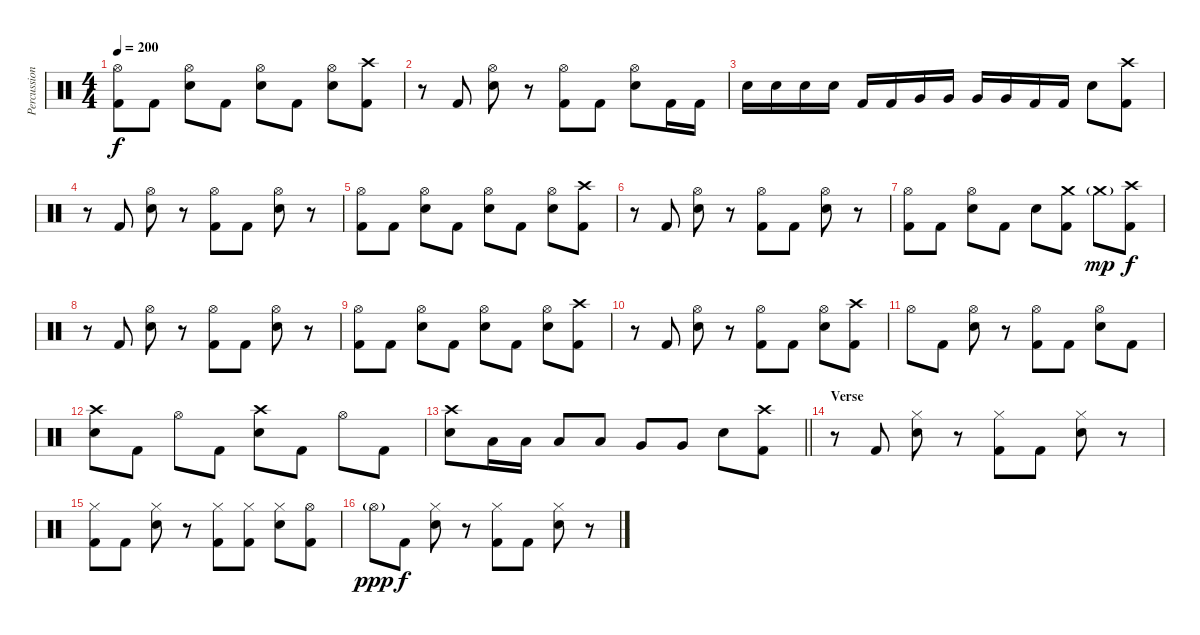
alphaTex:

\track ("Percussion" "Percussion") {instrument percussion}
\staff {score}
\articulation defaults
\ts (4 4)
\tempo 200
\clef neutral
\ks c
("Hi-Hat (open)" "Kick (hit) 2").8{dy f} "Kick (hit) 2".8 ("Hi-Hat (open)" "Electric Snare (hit)").8 "Kick (hit) 2".8 ("Hi-Hat (open)" "Electric Snare (hit)").8 "Kick (hit) 2".8 ("Hi-Hat (open)" "Electric Snare (hit)").8 ("Crash high (hit)" "Kick (hit) 2").8 |
r.8 "Kick (hit) 2".8 ("Hi-Hat (open)" "Electric Snare (hit)").8 r.8 ("Hi-Hat (open)" "Kick (hit) 2").8 "Kick (hit) 2".8 ("Hi-Hat (open)" "Electric Snare (hit)").8 "Kick (hit) 2".16 "Kick (hit) 2".16 |
"Electric Snare (hit)".16 "Electric Snare (hit)".16 "Electric Snare (hit)".16 "Electric Snare (hit)".16 "Kick (hit) 2".16 "Kick (hit) 2".16 "Very Low Tom (hit)".16 "Very Low Tom (hit)".16 "Very Low Tom (hit)".16 "Very Low Tom (hit)".16 "Kick (hit) 2".16 "Kick (hit) 2".16 "Electric Snare (hit)".8 ("Crash high (hit)" "Kick (hit) 2").8 |
r.8 "Kick (hit) 2".8 ("Hi-Hat (open)" "Electric Snare (hit)").8 r.8 ("Hi-Hat (open)" "Kick (hit) 2").8 "Kick (hit) 2".8 ("Hi-Hat (open)" "Electric Snare (hit)").8 r.8 |
("Hi-Hat (open)" "Kick (hit) 2").8 "Kick (hit) 2".8 ("Hi-Hat (open)" "Electric Snare (hit)").8 "Kick (hit) 2".8 ("Hi-Hat (open)" "Electric Snare (hit)").8 "Kick (hit) 2".8 ("Hi-Hat (open)" "Electric Snare (hit)").8 ("Crash high (hit)" "Kick (hit) 2").8 |
r.8 "Kick (hit) 2".8 ("Hi-Hat (open)" "Electric Snare (hit)").8 r.8 ("Hi-Hat (open)" "Kick (hit) 2").8 "Kick (hit) 2".8 ("Hi-Hat (open)" "Electric Snare (hit)").8 r.8 |
("Hi-Hat (open)" "Kick (hit) 2").8 "Kick (hit) 2".8 ("Hi-Hat (open)" "Electric Snare (hit)").8 "Kick (hit) 2".8 "Electric Snare (hit)".8 ("Crash medium (hit)" "Kick (hit) 2").8 "Crash medium (hit)"{g}.8{dy mp volume 0} ("Crash high (hit)" "Kick (hit) 2").8{dy f volume 13} |
r.8 "Kick (hit) 2".8 ("Hi-Hat (open)" "Electric Snare (hit)").8 r.8 ("Hi-Hat (open)" "Kick (hit) 2").8 "Kick (hit) 2".8 ("Hi-Hat (open)" "Electric Snare (hit)").8 r.8 |
("Hi-Hat (open)" "Kick (hit) 2").8 "Kick (hit) 2".8 ("Hi-Hat (open)" "Electric Snare (hit)").8 "Kick (hit) 2".8 ("Hi-Hat (open)" "Electric Snare (hit)").8 "Kick (hit) 2".8 ("Hi-Hat (open)" "Electric Snare (hit)").8 ("Crash high (hit)" "Kick (hit) 2").8 |
r.8 "Kick (hit) 2".8 ("Hi-Hat (open)" "Electric Snare (hit)").8 r.8 ("Hi-Hat (open)" "Kick (hit) 2").8 "Kick (hit) 2".8 ("Hi-Hat (open)" "Electric Snare (hit)").8 ("Crash high (hit)" "Kick (hit) 2").8 |
"Hi-Hat (open)".8 "Kick (hit) 2".8 ("Hi-Hat (open)" "Electric Snare (hit)").8 r.8 ("Hi-Hat (open)" "Kick (hit) 2").8 "Kick (hit) 2".8 ("Hi-Hat (open)" "Electric Snare (hit)").8 "Kick (hit) 2".8 |
("Crash high (hit)" "Electric Snare (hit)").8 "Kick (hit) 2".8 "Hi-Hat (open)".8 "Kick (hit) 2".8 ("Crash high (hit)" "Electric Snare (hit)").8 "Kick (hit) 2".8 "Hi-Hat (open)".8 "Kick (hit) 2".8 |
\barLineRight lightlight
("Crash high (hit)" "Electric Snare (hit)").8 "Low Tom (hit)".16 "Low Tom (hit)".16 "Low Tom (hit)".8 "Low Tom (hit)".8 "Very Low Tom (hit)".8 "Very Low Tom (hit)".8 "Electric Snare (hit)".8 ("Crash high (hit)" "Kick (hit) 2").8 |
\section ("" "Verse")
r.8 "Kick (hit) 2".8 ("Hi-Hat (closed)" "Electric Snare (hit)").8 r.8 ("Hi-Hat (closed)" "Kick (hit) 2").8 "Kick (hit) 2".8 ("Hi-Hat (closed)" "Electric Snare (hit)").8 r.8 |
("Hi-Hat (closed)" "Kick (hit) 2").8 "Kick (hit) 2".8 ("Hi-Hat (closed)" "Electric Snare (hit)").8 r.8 ("Hi-Hat (closed)" "Kick (hit) 2").8 ("Hi-Hat (closed)" "Kick (hit) 2").8 ("Hi-Hat (closed)" "Electric Snare (hit)").8 ("Hi-Hat (open)" "Kick (hit) 2").8 |
"Hi-Hat (open)"{g}.8{dy ppp volume 0} "Kick (hit) 2".8{dy f volume 13} ("Hi-Hat (closed)" "Electric Snare (hit)").8 r.8 ("Hi-Hat (closed)" "Kick (hit) 2").8 "Kick (hit) 2".8 ("Hi-Hat (closed)" "Electric Snare (hit)").8 r.8
